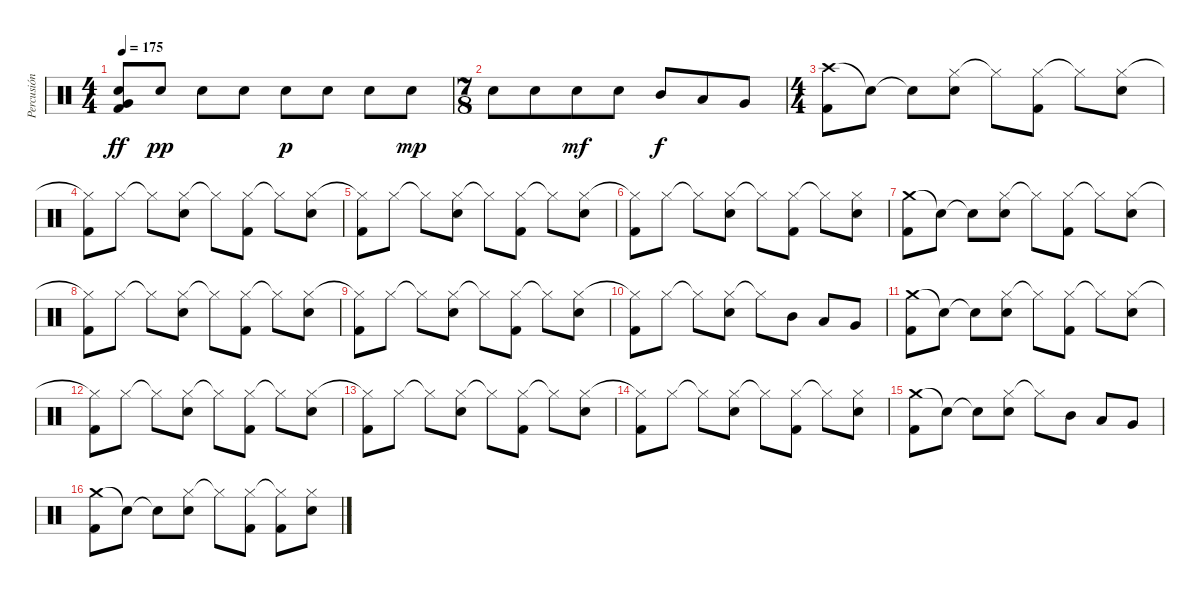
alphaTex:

\track ("Percusión" "Percusión") {instrument percussion}
\staff {score}
\articulation defaults
\ts (4 4)
\tempo 175
\clef neutral
\ks c
("Very Low Tom (hit)" "Snare (hit) 2" "Kick (hit) 2").8{dy ff} "Snare (hit) 2".8{dy pp} "Snare (hit) 2".8 "Snare (hit) 2".8 "Snare (hit) 2".8{dy p} "Snare (hit) 2".8 "Snare (hit) 2".8 "Snare (hit) 2".8{dy mp} |
\ts (7 8)
"Snare (hit) 2".8 "Snare (hit) 2".8 "Snare (hit) 2".8{dy mf} "Snare (hit) 2".8 "Mid Tom (hit)".8{dy f} "Low Tom (hit)".8 "Very Low Tom (hit)".8 |
\ts (4 4)
("Crash high (hit)" "Kick (hit) 2").8 "Snare (hit)"{t}.8 "Snare (hit)"{t}.8 ("Hi-Hat (closed)" "Snare (hit) 2").8 "Hi-Hat (closed)"{t}.8 ("Hi-Hat (closed)" "Kick (hit) 2").8 "Hi-Hat (closed)"{t}.8 ("Hi-Hat (closed)" "Snare (hit) 2").8 |
("Hi-Hat (closed)"{t} "Kick (hit) 2").8 "Hi-Hat (closed)".8 "Hi-Hat (closed)"{t}.8 ("Hi-Hat (closed)" "Snare (hit) 2").8 "Hi-Hat (closed)"{t}.8 ("Hi-Hat (closed)" "Kick (hit) 2").8 "Hi-Hat (closed)"{t}.8 ("Hi-Hat (closed)" "Snare (hit) 2").8 |
("Hi-Hat (closed)"{t} "Kick (hit) 2").8 "Hi-Hat (closed)".8 "Hi-Hat (closed)"{t}.8 ("Hi-Hat (closed)" "Snare (hit) 2").8 "Hi-Hat (closed)"{t}.8 ("Hi-Hat (closed)" "Kick (hit) 2").8 "Hi-Hat (closed)"{t}.8 ("Hi-Hat (closed)" "Snare (hit) 2").8 |
("Hi-Hat (closed)"{t} "Kick (hit) 2").8 "Hi-Hat (closed)".8 "Hi-Hat (closed)"{t}.8 ("Hi-Hat (closed)" "Snare (hit) 2").8 "Hi-Hat (closed)"{t}.8 ("Hi-Hat (closed)" "Kick (hit) 2").8 "Hi-Hat (closed)"{t}.8 ("Hi-Hat (closed)" "Snare (hit) 2").8 |
("Crash medium (hit)" "Kick (hit) 2").8 "Snare (hit)"{t}.8 "Snare (hit)"{t}.8 ("Hi-Hat (closed)" "Snare (hit) 2").8 "Hi-Hat (closed)"{t}.8 ("Hi-Hat (closed)" "Kick (hit) 2").8 "Hi-Hat (closed)"{t}.8 ("Hi-Hat (closed)" "Snare (hit) 2").8 |
("Hi-Hat (closed)"{t} "Kick (hit) 2").8 "Hi-Hat (closed)".8 "Hi-Hat (closed)"{t}.8 ("Hi-Hat (closed)" "Snare (hit) 2").8 "Hi-Hat (closed)"{t}.8 ("Hi-Hat (closed)" "Kick (hit) 2").8 "Hi-Hat (closed)"{t}.8 ("Hi-Hat (closed)" "Snare (hit) 2").8 |
("Hi-Hat (closed)"{t} "Kick (hit) 2").8 "Hi-Hat (closed)".8 "Hi-Hat (closed)"{t}.8 ("Hi-Hat (closed)" "Snare (hit) 2").8 "Hi-Hat (closed)"{t}.8 ("Hi-Hat (closed)" "Kick (hit) 2").8 "Hi-Hat (closed)"{t}.8 ("Hi-Hat (closed)" "Snare (hit) 2").8 |
("Hi-Hat (closed)"{t} "Kick (hit) 2").8 "Hi-Hat (closed)".8 "Hi-Hat (closed)"{t}.8 ("Hi-Hat (closed)" "Snare (hit) 2").8 "Hi-Hat (closed)"{t}.8 "Mid Tom (hit)".8 "Low Tom (hit)".8 "Very Low Tom (hit)".8 |
("Crash medium (hit)" "Kick (hit) 2").8 "Snare (hit)"{t}.8 "Snare (hit)"{t}.8 ("Hi-Hat (closed)" "Snare (hit) 2").8 "Hi-Hat (closed)"{t}.8 ("Hi-Hat (closed)" "Kick (hit) 2").8 "Hi-Hat (closed)"{t}.8 ("Hi-Hat (closed)" "Snare (hit) 2").8 |
("Hi-Hat (closed)"{t} "Kick (hit) 2").8 "Hi-Hat (closed)".8 "Hi-Hat (closed)"{t}.8 ("Hi-Hat (closed)" "Snare (hit) 2").8 "Hi-Hat (closed)"{t}.8 ("Hi-Hat (closed)" "Kick (hit) 2").8 "Hi-Hat (closed)"{t}.8 ("Hi-Hat (closed)" "Snare (hit) 2").8 |
("Hi-Hat (closed)"{t} "Kick (hit) 2").8 "Hi-Hat (closed)".8 "Hi-Hat (closed)"{t}.8 ("Hi-Hat (closed)" "Snare (hit) 2").8 "Hi-Hat (closed)"{t}.8 ("Hi-Hat (closed)" "Kick (hit) 2").8 "Hi-Hat (closed)"{t}.8 ("Hi-Hat (closed)" "Snare (hit) 2").8 |
("Hi-Hat (closed)"{t} "Kick (hit) 2").8 "Hi-Hat (closed)".8 "Hi-Hat (closed)"{t}.8 ("Hi-Hat (closed)" "Snare (hit) 2").8 "Hi-Hat (closed)"{t}.8 ("Hi-Hat (closed)" "Kick (hit) 2").8 "Hi-Hat (closed)"{t}.8 ("Hi-Hat (closed)" "Snare (hit) 2").8 |
("Crash medium (hit)" "Kick (hit) 2").8 "Snare (hit)"{t}.8 "Snare (hit)"{t}.8 ("Hi-Hat (closed)" "Snare (hit) 2").8 "Hi-Hat (closed)"{t}.8 "Mid Tom (hit)".8 "Low Tom (hit)".8 "Very Low Tom (hit)".8 |
("Crash medium (hit)" "Kick (hit) 2").8 "Snare (hit)"{t}.8 "Snare (hit)"{t}.8 ("Hi-Hat (closed)" "Snare (hit) 2").8 "Hi-Hat (closed)"{t}.8 ("Hi-Hat (closed)" "Kick (hit) 2").8 ("Hi-Hat (closed)"{t} "Kick (hit) 2").8 ("Hi-Hat (closed)" "Snare (hit) 2").8
